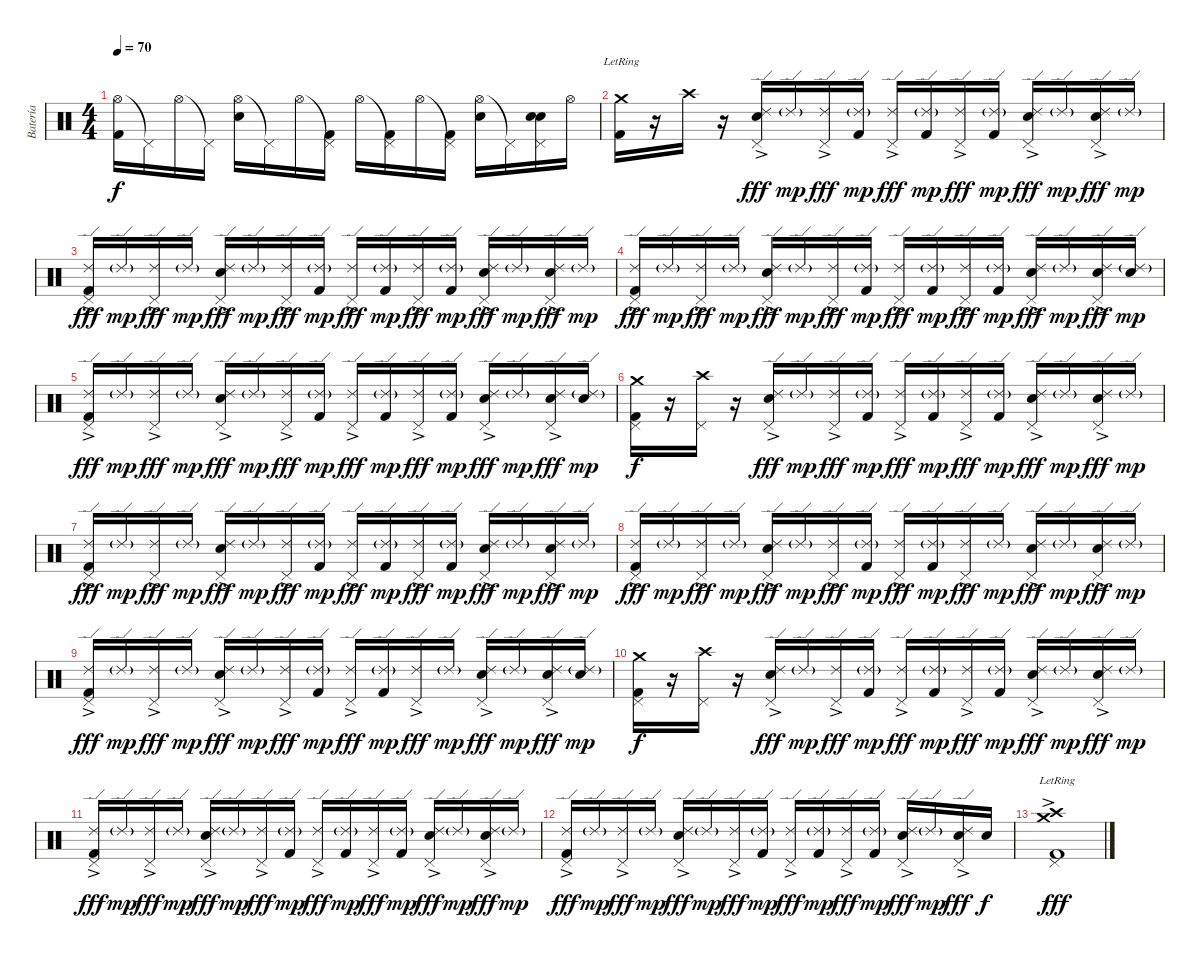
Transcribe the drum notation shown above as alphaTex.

\track ("Batería" "Batería") {instrument percussion}
\staff {score}
\articulation defaults
\ts (4 4)
\tempo 70
\clef neutral
\ks c
("Hi-Hat (open)" "Kick (hit) 2").16{dy f} "Pedal Hi-Hat (hit)"{t}.16 "Hi-Hat (open)".16 "Pedal Hi-Hat (hit)"{t}.16 ("Hi-Hat (open)" "Electric Snare (hit)").16 "Pedal Hi-Hat (hit)"{t}.16 "Hi-Hat (open)".16 ("Pedal Hi-Hat (hit)"{t} "Kick (hit) 2").16 "Hi-Hat (open)".16 ("Pedal Hi-Hat (hit)"{t} "Kick (hit) 2").16 "Hi-Hat (open)".16 ("Pedal Hi-Hat (hit)"{t} "Kick (hit) 2").16 ("Hi-Hat (open)" "Electric Snare (hit)").16 "Pedal Hi-Hat (hit)"{t}.16 ("Pedal Hi-Hat (hit)" "Electric Snare (hit)" "Electric Snare (hit)").16{bd 30} "Hi-Hat (open)".16 |
("Crash medium (hit)"{lr} "Kick (hit) 2").16 r.16 "Crash high (hit)".16 r.16 ("Ride (edge) 2"{ac} "Pedal Hi-Hat (hit)" "Electric Snare (hit)").16{dy fff} "Ride (edge) 2"{g}.16{dy mp} ("Ride (edge) 2"{ac} "Pedal Hi-Hat (hit)").16{dy fff} ("Ride (edge) 2"{g} "Kick (hit) 2").16{dy mp} ("Ride (edge) 2"{ac} "Pedal Hi-Hat (hit)").16{dy fff} ("Ride (edge) 2"{g} "Kick (hit) 2").16{dy mp} ("Ride (edge) 2"{ac} "Pedal Hi-Hat (hit)").16{dy fff} ("Ride (edge) 2"{g} "Kick (hit) 2").16{dy mp} ("Ride (edge) 2"{ac} "Pedal Hi-Hat (hit)" "Electric Snare (hit)").16{dy fff} "Ride (edge) 2"{g}.16{dy mp} ("Ride (edge) 2"{ac} "Pedal Hi-Hat (hit)" "Electric Snare (hit)").16{dy fff} "Ride (edge) 2"{g}.16{dy mp} |
("Ride (edge) 2"{ac} "Pedal Hi-Hat (hit)" "Kick (hit) 2").16{dy fff} "Ride (edge) 2"{g}.16{dy mp} ("Ride (edge) 2"{ac} "Pedal Hi-Hat (hit)").16{dy fff} "Ride (edge) 2"{g}.16{dy mp} ("Ride (edge) 2"{ac} "Pedal Hi-Hat (hit)" "Electric Snare (hit)").16{dy fff} "Ride (edge) 2"{g}.16{dy mp} ("Ride (edge) 2"{ac} "Pedal Hi-Hat (hit)").16{dy fff} ("Ride (edge) 2"{g} "Kick (hit) 2").16{dy mp} ("Ride (edge) 2"{ac} "Pedal Hi-Hat (hit)").16{dy fff} ("Ride (edge) 2"{g} "Kick (hit) 2").16{dy mp} ("Ride (edge) 2"{ac} "Pedal Hi-Hat (hit)").16{dy fff} ("Ride (edge) 2"{g} "Kick (hit) 2").16{dy mp} ("Ride (edge) 2"{ac} "Pedal Hi-Hat (hit)" "Electric Snare (hit)").16{dy fff} "Ride (edge) 2"{g}.16{dy mp} ("Ride (edge) 2"{ac} "Pedal Hi-Hat (hit)" "Electric Snare (hit)").16{dy fff} "Ride (edge) 2"{g}.16{dy mp} |
("Ride (edge) 2"{ac} "Pedal Hi-Hat (hit)" "Kick (hit) 2").16{dy fff} "Ride (edge) 2"{g}.16{dy mp} ("Ride (edge) 2"{ac} "Pedal Hi-Hat (hit)").16{dy fff} "Ride (edge) 2"{g}.16{dy mp} ("Ride (edge) 2"{ac} "Pedal Hi-Hat (hit)" "Electric Snare (hit)").16{dy fff} "Ride (edge) 2"{g}.16{dy mp} ("Ride (edge) 2"{ac} "Pedal Hi-Hat (hit)").16{dy fff} ("Ride (edge) 2"{g} "Kick (hit) 2").16{dy mp} ("Ride (edge) 2"{ac} "Pedal Hi-Hat (hit)").16{dy fff} ("Ride (edge) 2"{g} "Kick (hit) 2").16{dy mp} ("Ride (edge) 2"{ac} "Pedal Hi-Hat (hit)").16{dy fff} ("Ride (edge) 2"{g} "Kick (hit) 2").16{dy mp} ("Ride (edge) 2"{ac} "Pedal Hi-Hat (hit)" "Electric Snare (hit)").16{dy fff} "Ride (edge) 2"{g}.16{dy mp} ("Ride (edge) 2"{ac} "Pedal Hi-Hat (hit)" "Electric Snare (hit)").16{dy fff} ("Ride (edge) 2"{g} "Electric Snare (hit)").16{dy mp} |
("Ride (edge) 2"{ac} "Pedal Hi-Hat (hit)" "Kick (hit) 2").16{dy fff} "Ride (edge) 2"{g}.16{dy mp} ("Ride (edge) 2"{ac} "Pedal Hi-Hat (hit)").16{dy fff} "Ride (edge) 2"{g}.16{dy mp} ("Ride (edge) 2"{ac} "Pedal Hi-Hat (hit)" "Electric Snare (hit)").16{dy fff} "Ride (edge) 2"{g}.16{dy mp} ("Ride (edge) 2"{ac} "Pedal Hi-Hat (hit)").16{dy fff} ("Ride (edge) 2"{g} "Kick (hit) 2").16{dy mp} ("Ride (edge) 2"{ac} "Pedal Hi-Hat (hit)").16{dy fff} ("Ride (edge) 2"{g} "Kick (hit) 2").16{dy mp} ("Ride (edge) 2"{ac} "Pedal Hi-Hat (hit)").16{dy fff} ("Ride (edge) 2"{g} "Kick (hit) 2").16{dy mp} ("Ride (edge) 2"{ac} "Pedal Hi-Hat (hit)" "Electric Snare (hit)").16{dy fff} "Ride (edge) 2"{g}.16{dy mp} ("Ride (edge) 2"{ac} "Pedal Hi-Hat (hit)" "Electric Snare (hit)").16{dy fff} ("Ride (edge) 2"{g} "Electric Snare (hit)").16{dy mp} |
("Crash medium (hit)" "Pedal Hi-Hat (hit)" "Kick (hit) 2").16{dy f} r.16 ("Crash high (hit)" "Pedal Hi-Hat (hit)").16 r.16 ("Ride (edge) 2"{ac} "Pedal Hi-Hat (hit)" "Electric Snare (hit)").16{dy fff} "Ride (edge) 2"{g}.16{dy mp} ("Ride (edge) 2"{ac} "Pedal Hi-Hat (hit)").16{dy fff} ("Ride (edge) 2"{g} "Kick (hit) 2").16{dy mp} ("Ride (edge) 2"{ac} "Pedal Hi-Hat (hit)").16{dy fff} ("Ride (edge) 2"{g} "Kick (hit) 2").16{dy mp} ("Ride (edge) 2"{ac} "Pedal Hi-Hat (hit)").16{dy fff} ("Ride (edge) 2"{g} "Kick (hit) 2").16{dy mp} ("Ride (edge) 2"{ac} "Pedal Hi-Hat (hit)" "Electric Snare (hit)").16{dy fff} "Ride (edge) 2"{g}.16{dy mp} ("Ride (edge) 2"{ac} "Pedal Hi-Hat (hit)" "Electric Snare (hit)").16{dy fff} "Ride (edge) 2"{g}.16{dy mp} |
("Ride (edge) 2"{ac} "Pedal Hi-Hat (hit)" "Kick (hit) 2").16{dy fff} "Ride (edge) 2"{g}.16{dy mp} ("Ride (edge) 2"{ac} "Pedal Hi-Hat (hit)").16{dy fff} "Ride (edge) 2"{g}.16{dy mp} ("Ride (edge) 2"{ac} "Pedal Hi-Hat (hit)" "Electric Snare (hit)").16{dy fff} "Ride (edge) 2"{g}.16{dy mp} ("Ride (edge) 2"{ac} "Pedal Hi-Hat (hit)").16{dy fff} ("Ride (edge) 2"{g} "Kick (hit) 2").16{dy mp} ("Ride (edge) 2"{ac} "Pedal Hi-Hat (hit)").16{dy fff} ("Ride (edge) 2"{g} "Kick (hit) 2").16{dy mp} ("Ride (edge) 2"{ac} "Pedal Hi-Hat (hit)").16{dy fff} ("Ride (edge) 2"{g} "Kick (hit) 2").16{dy mp} ("Ride (edge) 2"{ac} "Pedal Hi-Hat (hit)" "Electric Snare (hit)").16{dy fff} "Ride (edge) 2"{g}.16{dy mp} ("Ride (edge) 2"{ac} "Pedal Hi-Hat (hit)" "Electric Snare (hit)").16{dy fff} "Ride (edge) 2"{g}.16{dy mp} |
("Ride (edge) 2"{ac} "Pedal Hi-Hat (hit)" "Kick (hit) 2").16{dy fff} "Ride (edge) 2"{g}.16{dy mp} ("Ride (edge) 2"{ac} "Pedal Hi-Hat (hit)").16{dy fff} "Ride (edge) 2"{g}.16{dy mp} ("Ride (edge) 2"{ac} "Pedal Hi-Hat (hit)" "Electric Snare (hit)").16{dy fff} "Ride (edge) 2"{g}.16{dy mp} ("Ride (edge) 2"{ac} "Pedal Hi-Hat (hit)").16{dy fff} ("Ride (edge) 2"{g} "Kick (hit) 2").16{dy mp} ("Ride (edge) 2"{ac} "Pedal Hi-Hat (hit)").16{dy fff} ("Ride (edge) 2"{g} "Kick (hit) 2").16{dy mp} ("Ride (edge) 2"{ac} "Pedal Hi-Hat (hit)").16{dy fff} "Ride (edge) 2"{g}.16{dy mp} ("Ride (edge) 2"{ac} "Pedal Hi-Hat (hit)" "Electric Snare (hit)").16{dy fff} "Ride (edge) 2"{g}.16{dy mp} ("Ride (edge) 2"{ac} "Pedal Hi-Hat (hit)" "Electric Snare (hit)").16{dy fff} "Ride (edge) 2"{g}.16{dy mp} |
("Ride (edge) 2"{ac} "Pedal Hi-Hat (hit)" "Kick (hit) 2").16{dy fff} "Ride (edge) 2"{g}.16{dy mp} ("Ride (edge) 2"{ac} "Pedal Hi-Hat (hit)").16{dy fff} "Ride (edge) 2"{g}.16{dy mp} ("Ride (edge) 2"{ac} "Pedal Hi-Hat (hit)" "Electric Snare (hit)").16{dy fff} "Ride (edge) 2"{g}.16{dy mp} ("Ride (edge) 2"{ac} "Pedal Hi-Hat (hit)").16{dy fff} ("Ride (edge) 2"{g} "Kick (hit) 2").16{dy mp} ("Ride (edge) 2"{ac} "Pedal Hi-Hat (hit)").16{dy fff} ("Ride (edge) 2"{g} "Kick (hit) 2").16{dy mp} ("Ride (edge) 2"{ac} "Pedal Hi-Hat (hit)").16{dy fff} "Ride (edge) 2"{g}.16{dy mp} ("Ride (edge) 2"{ac} "Pedal Hi-Hat (hit)" "Electric Snare (hit)").16{dy fff} "Ride (edge) 2"{g}.16{dy mp} ("Ride (edge) 2"{ac} "Pedal Hi-Hat (hit)" "Electric Snare (hit)").16{dy fff} ("Ride (edge) 2"{g} "Electric Snare (hit)").16{dy mp} |
("Crash medium (hit)" "Pedal Hi-Hat (hit)" "Kick (hit) 2").16{dy f} r.16 ("Crash high (hit)" "Pedal Hi-Hat (hit)").16 r.16 ("Ride (edge) 2"{ac} "Pedal Hi-Hat (hit)" "Electric Snare (hit)").16{dy fff} "Ride (edge) 2"{g}.16{dy mp} ("Ride (edge) 2"{ac} "Pedal Hi-Hat (hit)").16{dy fff} ("Ride (edge) 2"{g} "Kick (hit) 2").16{dy mp} ("Ride (edge) 2"{ac} "Pedal Hi-Hat (hit)").16{dy fff} ("Ride (edge) 2"{g} "Kick (hit) 2").16{dy mp} ("Ride (edge) 2"{ac} "Pedal Hi-Hat (hit)").16{dy fff} ("Ride (edge) 2"{g} "Kick (hit) 2").16{dy mp} ("Ride (edge) 2"{ac} "Pedal Hi-Hat (hit)" "Electric Snare (hit)").16{dy fff} "Ride (edge) 2"{g}.16{dy mp} ("Ride (edge) 2"{ac} "Pedal Hi-Hat (hit)" "Electric Snare (hit)").16{dy fff} "Ride (edge) 2"{g}.16{dy mp} |
("Ride (edge) 2"{ac} "Pedal Hi-Hat (hit)" "Kick (hit) 2").16{dy fff} "Ride (edge) 2"{g}.16{dy mp} ("Ride (edge) 2"{ac} "Pedal Hi-Hat (hit)").16{dy fff} "Ride (edge) 2"{g}.16{dy mp} ("Ride (edge) 2"{ac} "Pedal Hi-Hat (hit)" "Electric Snare (hit)").16{dy fff} "Ride (edge) 2"{g}.16{dy mp} ("Ride (edge) 2"{ac} "Pedal Hi-Hat (hit)").16{dy fff} ("Ride (edge) 2"{g} "Kick (hit) 2").16{dy mp} ("Ride (edge) 2"{ac} "Pedal Hi-Hat (hit)").16{dy fff} ("Ride (edge) 2"{g} "Kick (hit) 2").16{dy mp} ("Ride (edge) 2"{ac} "Pedal Hi-Hat (hit)").16{dy fff} ("Ride (edge) 2"{g} "Kick (hit) 2").16{dy mp} ("Ride (edge) 2"{ac} "Pedal Hi-Hat (hit)" "Electric Snare (hit)").16{dy fff} "Ride (edge) 2"{g}.16{dy mp} ("Ride (edge) 2"{ac} "Pedal Hi-Hat (hit)" "Electric Snare (hit)").16{dy fff} "Ride (edge) 2"{g}.16{dy mp} |
("Ride (edge) 2"{ac} "Pedal Hi-Hat (hit)" "Kick (hit) 2").16{dy fff} "Ride (edge) 2"{g}.16{dy mp} ("Ride (edge) 2"{ac} "Pedal Hi-Hat (hit)").16{dy fff} "Ride (edge) 2"{g}.16{dy mp} ("Ride (edge) 2"{ac} "Pedal Hi-Hat (hit)" "Electric Snare (hit)").16{dy fff} "Ride (edge) 2"{g}.16{dy mp} ("Ride (edge) 2"{ac} "Pedal Hi-Hat (hit)").16{dy fff} ("Ride (edge) 2"{g} "Kick (hit) 2").16{dy mp} ("Ride (edge) 2"{ac} "Pedal Hi-Hat (hit)").16{dy fff} ("Ride (edge) 2"{g} "Kick (hit) 2").16{dy mp} ("Ride (edge) 2"{ac} "Pedal Hi-Hat (hit)").16{dy fff} ("Ride (edge) 2"{g} "Kick (hit) 2").16{dy mp} ("Ride (edge) 2"{ac} "Pedal Hi-Hat (hit)" "Electric Snare (hit)").16{dy fff} "Ride (edge) 2"{g}.16{dy mp} ("Ride (edge) 2"{ac} "Pedal Hi-Hat (hit)" "Electric Snare (hit)").16{dy fff} "Electric Snare (hit)".16{dy f} |
("Crash high (hit)"{ac lr} "Crash medium (hit)"{ac} "Pedal Hi-Hat (hit)"{ac} "Kick (hit) 2"{ac}).1{dy fff}
